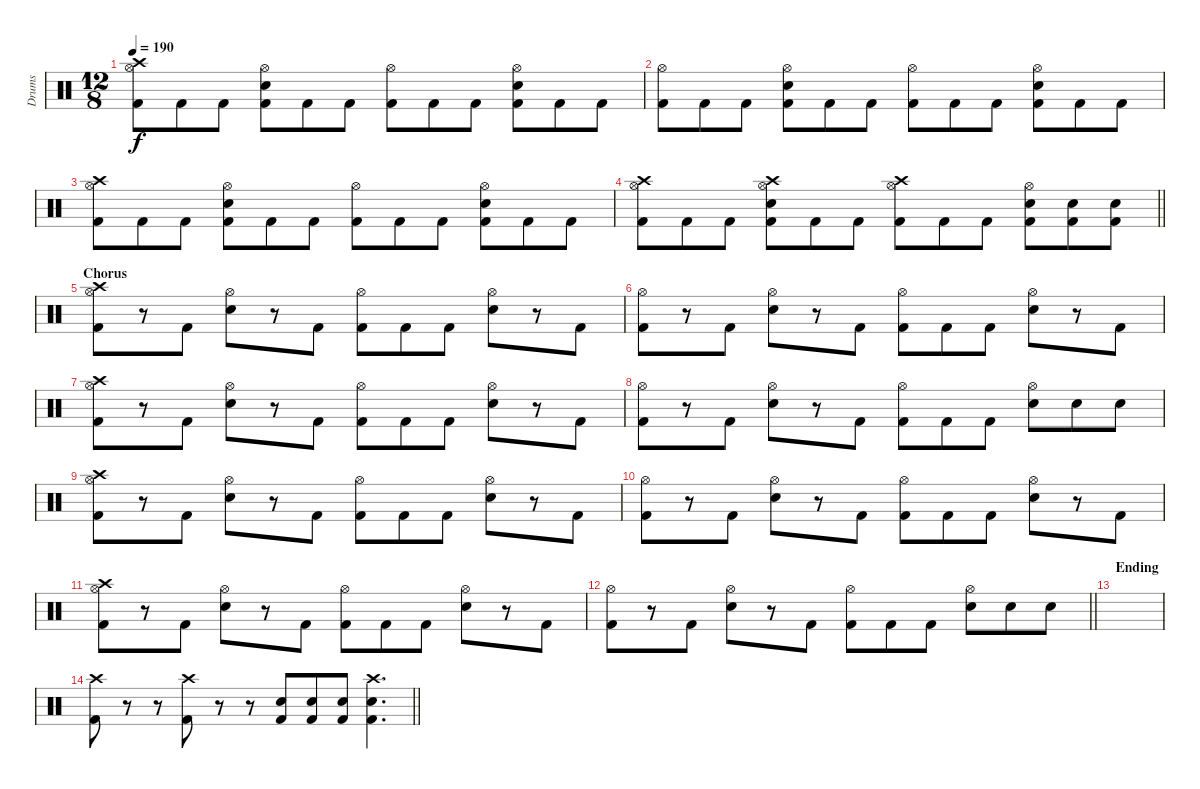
\track ("Drums" "Drums") {instrument percussion}
\staff {score}
\articulation defaults
\ts (12 8)
\tempo 190
\clef neutral
\ks c
("Crash high (hit)" "Hi-Hat (open)" "Kick (hit) 2").8{dy f} "Kick (hit) 2".8 "Kick (hit) 2".8 ("Hi-Hat (open)" "Snare (hit) 2" "Kick (hit) 2").8 "Kick (hit) 2".8 "Kick (hit) 2".8 ("Hi-Hat (open)" "Kick (hit) 2").8 "Kick (hit) 2".8 "Kick (hit) 2".8 ("Hi-Hat (open)" "Snare (hit) 2" "Kick (hit) 2").8 "Kick (hit) 2".8 "Kick (hit) 2".8 |
("Hi-Hat (open)" "Kick (hit) 2").8 "Kick (hit) 2".8 "Kick (hit) 2".8 ("Hi-Hat (open)" "Snare (hit) 2" "Kick (hit) 2").8 "Kick (hit) 2".8 "Kick (hit) 2".8 ("Hi-Hat (open)" "Kick (hit) 2").8 "Kick (hit) 2".8 "Kick (hit) 2".8 ("Hi-Hat (open)" "Snare (hit) 2" "Kick (hit) 2").8 "Kick (hit) 2".8 "Kick (hit) 2".8 |
("Crash high (hit)" "Hi-Hat (open)" "Kick (hit) 2").8 "Kick (hit) 2".8 "Kick (hit) 2".8 ("Hi-Hat (open)" "Snare (hit) 2" "Kick (hit) 2").8 "Kick (hit) 2".8 "Kick (hit) 2".8 ("Hi-Hat (open)" "Kick (hit) 2").8 "Kick (hit) 2".8 "Kick (hit) 2".8 ("Hi-Hat (open)" "Snare (hit) 2" "Kick (hit) 2").8 "Kick (hit) 2".8 "Kick (hit) 2".8 |
\barLineRight lightlight
("Crash high (hit)" "Hi-Hat (open)" "Kick (hit) 2").8 "Kick (hit) 2".8 "Kick (hit) 2".8 ("Crash high (hit)" "Hi-Hat (open)" "Snare (hit) 2" "Kick (hit) 2").8 "Kick (hit) 2".8 "Kick (hit) 2".8 ("Crash high (hit)" "Hi-Hat (open)" "Kick (hit) 2").8 "Kick (hit) 2".8 "Kick (hit) 2".8 ("Hi-Hat (open)" "Snare (hit) 2" "Kick (hit) 2").8 ("Snare (hit) 2" "Kick (hit) 2").8 ("Snare (hit) 2" "Kick (hit) 2").8 |
\section ("" "Chorus")
("Crash high (hit)" "Hi-Hat (open)" "Kick (hit) 2").8 r.8 "Kick (hit) 2".8 ("Hi-Hat (open)" "Snare (hit) 2").8 r.8 "Kick (hit) 2".8 ("Hi-Hat (open)" "Kick (hit) 2").8 "Kick (hit) 2".8 "Kick (hit) 2".8 ("Hi-Hat (open)" "Snare (hit) 2").8 r.8 "Kick (hit) 2".8 |
("Hi-Hat (open)" "Kick (hit) 2").8 r.8 "Kick (hit) 2".8 ("Hi-Hat (open)" "Snare (hit) 2").8 r.8 "Kick (hit) 2".8 ("Hi-Hat (open)" "Kick (hit) 2").8 "Kick (hit) 2".8 "Kick (hit) 2".8 ("Hi-Hat (open)" "Snare (hit) 2").8 r.8 "Kick (hit) 2".8 |
("Crash high (hit)" "Hi-Hat (open)" "Kick (hit) 2").8 r.8 "Kick (hit) 2".8 ("Hi-Hat (open)" "Snare (hit) 2").8 r.8 "Kick (hit) 2".8 ("Hi-Hat (open)" "Kick (hit) 2").8 "Kick (hit) 2".8 "Kick (hit) 2".8 ("Hi-Hat (open)" "Snare (hit) 2").8 r.8 "Kick (hit) 2".8 |
("Hi-Hat (open)" "Kick (hit) 2").8 r.8 "Kick (hit) 2".8 ("Hi-Hat (open)" "Snare (hit) 2").8 r.8 "Kick (hit) 2".8 ("Hi-Hat (open)" "Kick (hit) 2").8 "Kick (hit) 2".8 "Kick (hit) 2".8 ("Hi-Hat (open)" "Snare (hit) 2").8 "Snare (hit) 2".8 "Snare (hit) 2".8 |
("Crash high (hit)" "Hi-Hat (open)" "Kick (hit) 2").8 r.8 "Kick (hit) 2".8 ("Hi-Hat (open)" "Snare (hit) 2").8 r.8 "Kick (hit) 2".8 ("Hi-Hat (open)" "Kick (hit) 2").8 "Kick (hit) 2".8 "Kick (hit) 2".8 ("Hi-Hat (open)" "Snare (hit) 2").8 r.8 "Kick (hit) 2".8 |
("Hi-Hat (open)" "Kick (hit) 2").8 r.8 "Kick (hit) 2".8 ("Hi-Hat (open)" "Snare (hit) 2").8 r.8 "Kick (hit) 2".8 ("Hi-Hat (open)" "Kick (hit) 2").8 "Kick (hit) 2".8 "Kick (hit) 2".8 ("Hi-Hat (open)" "Snare (hit) 2").8 r.8 "Kick (hit) 2".8 |
("Crash high (hit)" "Hi-Hat (open)" "Kick (hit) 2").8 r.8 "Kick (hit) 2".8 ("Hi-Hat (open)" "Snare (hit) 2").8 r.8 "Kick (hit) 2".8 ("Hi-Hat (open)" "Kick (hit) 2").8 "Kick (hit) 2".8 "Kick (hit) 2".8 ("Hi-Hat (open)" "Snare (hit) 2").8 r.8 "Kick (hit) 2".8 |
\barLineRight lightlight
("Hi-Hat (open)" "Kick (hit) 2").8 r.8 "Kick (hit) 2".8 ("Hi-Hat (open)" "Snare (hit) 2").8 r.8 "Kick (hit) 2".8 ("Hi-Hat (open)" "Kick (hit) 2").8 "Kick (hit) 2".8 "Kick (hit) 2".8 ("Hi-Hat (open)" "Snare (hit) 2").8 "Snare (hit) 2".8 "Snare (hit) 2".8 |
\section ("" "Ending")
|
\barLineRight lightlight
("Crash high (hit)" "Kick (hit) 2").8 r.8 r.8 ("Crash high (hit)" "Kick (hit) 2").8 r.8 r.8 ("Snare (hit) 2" "Kick (hit) 2").8 ("Snare (hit) 2" "Kick (hit) 2").8 ("Snare (hit) 2" "Kick (hit) 2").8 ("Crash high (hit)" "Snare (hit) 2" "Kick (hit) 2").4{d}
